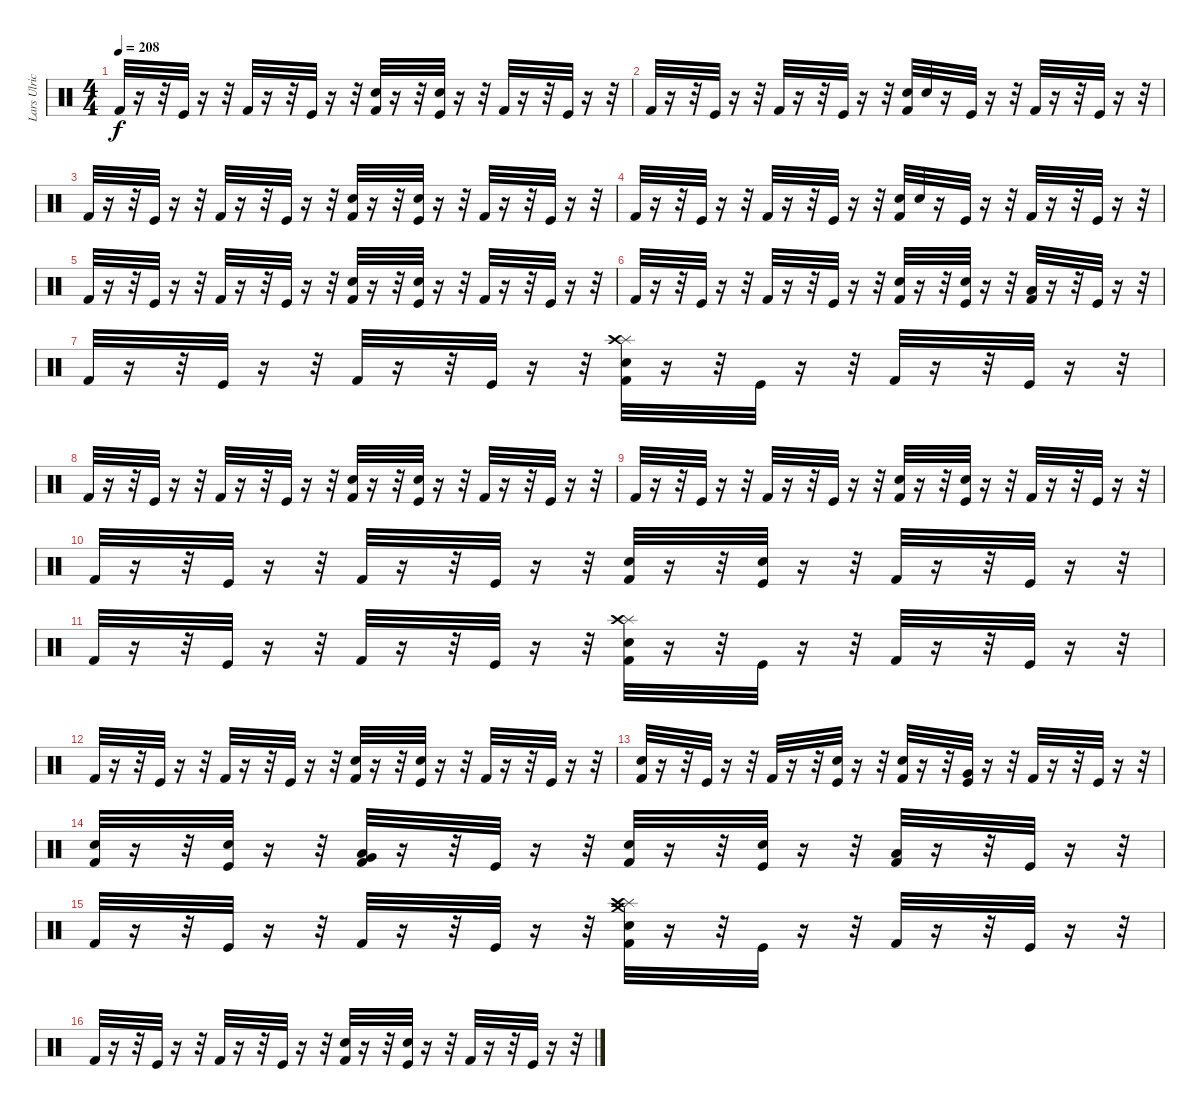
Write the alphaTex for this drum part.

\track ("Lars Ulrich (Drums)" "Lars Ulric") {instrument percussion}
\staff {score}
\articulation defaults
\ts (4 4)
\tempo 208
\clef neutral
\ks c "Kick (hit) 2".32{dy f}
r.16 r.32 "Kick (hit)".32 r.16 r.32 "Kick (hit) 2".32 r.16 r.32 "Kick (hit)".32 r.16 r.32 ("Snare (hit) 2" "Kick (hit) 2").32 r.16 r.32 ("Snare (hit) 2" "Kick (hit)").32 r.16 r.32 "Kick (hit) 2".32 r.16 r.32 "Kick (hit)".32 r.16 r.32 |
"Kick (hit) 2".32 r.16 r.32 "Kick (hit)".32 r.16 r.32 "Kick (hit) 2".32 r.16 r.32 "Kick (hit)".32 r.16 r.32 ("Snare (hit) 2" "Kick (hit) 2").32 "Snare (hit) 2".32 r.16 "Kick (hit)".32 r.16 r.32 "Kick (hit) 2".32 r.16 r.32 "Kick (hit)".32 r.16 r.32 |
"Kick (hit) 2".32 r.16 r.32 "Kick (hit)".32 r.16 r.32 "Kick (hit) 2".32 r.16 r.32 "Kick (hit)".32 r.16 r.32 ("Snare (hit) 2" "Kick (hit) 2").32 r.16 r.32 ("Snare (hit) 2" "Kick (hit)").32 r.16 r.32 "Kick (hit) 2".32 r.16 r.32 "Kick (hit)".32 r.16 r.32 |
"Kick (hit) 2".32 r.16 r.32 "Kick (hit)".32 r.16 r.32 "Kick (hit) 2".32 r.16 r.32 "Kick (hit)".32 r.16 r.32 ("Snare (hit) 2" "Kick (hit) 2").32 "Snare (hit) 2".32 r.16 "Kick (hit)".32 r.16 r.32 "Kick (hit) 2".32 r.16 r.32 "Kick (hit)".32 r.16 r.32 |
"Kick (hit) 2".32 r.16 r.32 "Kick (hit)".32 r.16 r.32 "Kick (hit) 2".32 r.16 r.32 "Kick (hit)".32 r.16 r.32 ("Snare (hit) 2" "Kick (hit) 2").32 r.16 r.32 ("Snare (hit) 2" "Kick (hit)").32 r.16 r.32 "Kick (hit) 2".32 r.16 r.32 "Kick (hit)".32 r.16 r.32 |
"Kick (hit) 2".32 r.16 r.32 "Kick (hit)".32 r.16 r.32 "Kick (hit) 2".32 r.16 r.32 "Kick (hit)".32 r.16 r.32 ("Snare (hit) 2" "Kick (hit) 2").32 r.16 r.32 ("Snare (hit) 2" "Kick (hit)").32 r.16 r.32 ("Low Tom (hit)" "Kick (hit) 2").32 r.16 r.32 "Kick (hit)".32 r.16 r.32 |
"Kick (hit) 2".32 r.16 r.32 "Kick (hit)".32 r.16 r.32 "Kick (hit) 2".32 r.16 r.32 "Kick (hit)".32 r.16 r.32 ("Splash (hit)" "Crash high (hit)" "Snare (hit) 2" "Kick (hit) 2").32 r.16 r.32 "Kick (hit)".32 r.16 r.32 "Kick (hit) 2".32 r.16 r.32 "Kick (hit)".32 r.16 r.32 |
"Kick (hit) 2".32 r.16 r.32 "Kick (hit)".32 r.16 r.32 "Kick (hit) 2".32 r.16 r.32 "Kick (hit)".32 r.16 r.32 ("Snare (hit) 2" "Kick (hit) 2").32 r.16 r.32 ("Snare (hit) 2" "Kick (hit)").32 r.16 r.32 "Kick (hit) 2".32 r.16 r.32 "Kick (hit)".32 r.16 r.32 |
"Kick (hit) 2".32 r.16 r.32 "Kick (hit)".32 r.16 r.32 "Kick (hit) 2".32 r.16 r.32 "Kick (hit)".32 r.16 r.32 ("Snare (hit) 2" "Kick (hit) 2").32 r.16 r.32 ("Snare (hit) 2" "Kick (hit)").32 r.16 r.32 "Kick (hit) 2".32 r.16 r.32 "Kick (hit)".32 r.16 r.32 |
"Kick (hit) 2".32 r.16 r.32 "Kick (hit)".32 r.16 r.32 "Kick (hit) 2".32 r.16 r.32 "Kick (hit)".32 r.16 r.32 ("Snare (hit) 2" "Kick (hit) 2").32 r.16 r.32 ("Snare (hit) 2" "Kick (hit)").32 r.16 r.32 "Kick (hit) 2".32 r.16 r.32 "Kick (hit)".32 r.16 r.32 |
"Kick (hit) 2".32 r.16 r.32 "Kick (hit)".32 r.16 r.32 "Kick (hit) 2".32 r.16 r.32 "Kick (hit)".32 r.16 r.32 ("Splash (hit)" "Crash high (hit)" "Snare (hit) 2" "Kick (hit) 2").32 r.16 r.32 "Kick (hit)".32 r.16 r.32 "Kick (hit) 2".32 r.16 r.32 "Kick (hit)".32 r.16 r.32 |
"Kick (hit) 2".32 r.16 r.32 "Kick (hit)".32 r.16 r.32 "Kick (hit) 2".32 r.16 r.32 "Kick (hit)".32 r.16 r.32 ("Snare (hit) 2" "Kick (hit) 2").32 r.16 r.32 ("Snare (hit) 2" "Kick (hit)").32 r.16 r.32 "Kick (hit) 2".32 r.16 r.32 "Kick (hit)".32 r.16 r.32 |
("Snare (hit) 2" "Kick (hit) 2").32 r.16 r.32 "Kick (hit)".32 r.16 r.32 "Kick (hit) 2".32 r.16 r.32 ("Snare (hit) 2" "Kick (hit)").32 r.16 r.32 ("Snare (hit) 2" "Kick (hit) 2").32 r.16 r.32 ("Very Low Tom (hit)" "Kick (hit)").32 r.16 r.32 "Kick (hit) 2".32 r.16 r.32 "Kick (hit)".32 r.16 r.32 |
("Snare (hit) 2" "Kick (hit) 2").32 r.16 r.32 ("Snare (hit) 2" "Kick (hit)").32 r.16 r.32 ("Very Low Tom (hit)" "Low Floor Tom (hit)" "Kick (hit) 2").32 r.16 r.32 "Kick (hit)".32 r.16 r.32 ("Snare (hit) 2" "Kick (hit) 2").32 r.16 r.32 ("Snare (hit) 2" "Kick (hit)").32 r.16 r.32 ("Low Floor Tom (hit)" "Kick (hit) 2").32 r.16 r.32 "Kick (hit)".32 r.16 r.32 |
"Kick (hit) 2".32 r.16 r.32 "Kick (hit)".32 r.16 r.32 "Kick (hit) 2".32 r.16 r.32 "Kick (hit)".32 r.16 r.32 ("Crash medium (hit)" "Splash (hit)" "Crash high (hit)" "Snare (hit) 2" "Kick (hit) 2").32 r.16 r.32 "Kick (hit)".32 r.16 r.32 "Kick (hit) 2".32 r.16 r.32 "Kick (hit)".32 r.16 r.32 |
"Kick (hit) 2".32 r.16 r.32 "Kick (hit)".32 r.16 r.32 "Kick (hit) 2".32 r.16 r.32 "Kick (hit)".32 r.16 r.32 ("Snare (hit) 2" "Kick (hit) 2").32 r.16 r.32 ("Snare (hit) 2" "Kick (hit)").32 r.16 r.32 "Kick (hit) 2".32 r.16 r.32 "Kick (hit)".32 r.16 r.32
